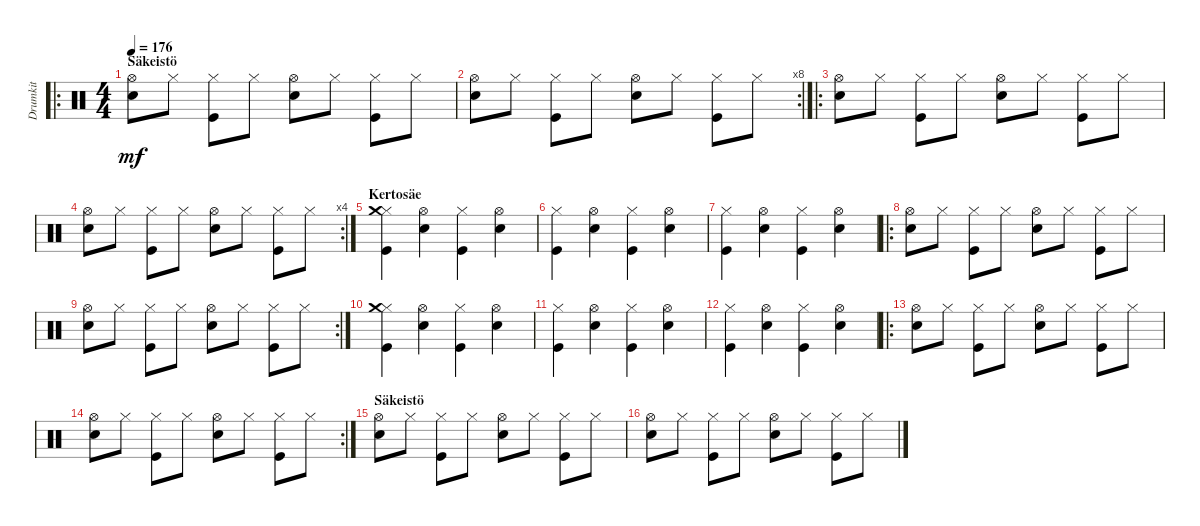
\track ("Drumkit" "Drumkit") {instrument percussion}
\staff {score}
\articulation defaults
\ro
\ts (4 4)
\section ("" "Säkeistö")
\tempo 176
\clef neutral
\ks c
("Hi-Hat (open)" "Snare (hit) 2").8{dy mf} "Hi-Hat (closed)".8 ("Hi-Hat (closed)" "Kick (hit)").8 "Hi-Hat (closed)".8 ("Hi-Hat (open)" "Snare (hit) 2").8 "Hi-Hat (closed)".8 ("Hi-Hat (closed)" "Kick (hit)").8 "Hi-Hat (closed)".8 |
\rc 8
("Hi-Hat (open)" "Snare (hit) 2").8 "Hi-Hat (closed)".8 ("Hi-Hat (closed)" "Kick (hit)").8 "Hi-Hat (closed)".8 ("Hi-Hat (open)" "Snare (hit) 2").8 "Hi-Hat (closed)".8 ("Hi-Hat (closed)" "Kick (hit)").8 "Hi-Hat (closed)".8 |
\ro
("Hi-Hat (open)" "Snare (hit) 2").8 "Hi-Hat (closed)".8 ("Hi-Hat (closed)" "Kick (hit)").8 "Hi-Hat (closed)".8 ("Hi-Hat (open)" "Snare (hit) 2").8 "Hi-Hat (closed)".8 ("Hi-Hat (closed)" "Kick (hit)").8 "Hi-Hat (closed)".8 |
\rc 4
("Hi-Hat (open)" "Snare (hit) 2").8 "Hi-Hat (closed)".8 ("Hi-Hat (closed)" "Kick (hit)").8 "Hi-Hat (closed)".8 ("Hi-Hat (open)" "Snare (hit) 2").8 "Hi-Hat (closed)".8 ("Hi-Hat (closed)" "Kick (hit)").8 "Hi-Hat (closed)".8 |
\section ("" "Kertosäe")
("Hi-Hat (closed)" "Kick (hit)" "Crash medium (hit)").4 ("Hi-Hat (open)" "Snare (hit) 2").4 ("Hi-Hat (closed)" "Kick (hit)").4 ("Hi-Hat (open)" "Snare (hit) 2").4 |
("Hi-Hat (closed)" "Kick (hit)").4 ("Hi-Hat (open)" "Snare (hit) 2").4 ("Hi-Hat (closed)" "Kick (hit)").4 ("Hi-Hat (open)" "Snare (hit) 2").4 |
("Hi-Hat (closed)" "Kick (hit)").4 ("Hi-Hat (open)" "Snare (hit) 2").4 ("Hi-Hat (closed)" "Kick (hit)").4 ("Hi-Hat (open)" "Snare (hit) 2").4 |
\ro
("Hi-Hat (open)" "Snare (hit) 2").8 "Hi-Hat (closed)".8 ("Hi-Hat (closed)" "Kick (hit)").8 "Hi-Hat (closed)".8 ("Hi-Hat (open)" "Snare (hit) 2").8 "Hi-Hat (closed)".8 ("Hi-Hat (closed)" "Kick (hit)").8 "Hi-Hat (closed)".8 |
\rc 2
("Hi-Hat (open)" "Snare (hit) 2").8 "Hi-Hat (closed)".8 ("Hi-Hat (closed)" "Kick (hit)").8 "Hi-Hat (closed)".8 ("Hi-Hat (open)" "Snare (hit) 2").8 "Hi-Hat (closed)".8 ("Hi-Hat (closed)" "Kick (hit)").8 "Hi-Hat (closed)".8 |
("Hi-Hat (closed)" "Kick (hit)" "Crash medium (hit)").4 ("Hi-Hat (open)" "Snare (hit) 2").4 ("Hi-Hat (closed)" "Kick (hit)").4 ("Hi-Hat (open)" "Snare (hit) 2").4 |
("Hi-Hat (closed)" "Kick (hit)").4 ("Hi-Hat (open)" "Snare (hit) 2").4 ("Hi-Hat (closed)" "Kick (hit)").4 ("Hi-Hat (open)" "Snare (hit) 2").4 |
("Hi-Hat (closed)" "Kick (hit)").4 ("Hi-Hat (open)" "Snare (hit) 2").4 ("Hi-Hat (closed)" "Kick (hit)").4 ("Hi-Hat (open)" "Snare (hit) 2").4 |
\ro
("Hi-Hat (open)" "Snare (hit) 2").8 "Hi-Hat (closed)".8 ("Hi-Hat (closed)" "Kick (hit)").8 "Hi-Hat (closed)".8 ("Hi-Hat (open)" "Snare (hit) 2").8 "Hi-Hat (closed)".8 ("Hi-Hat (closed)" "Kick (hit)").8 "Hi-Hat (closed)".8 |
\rc 2
("Hi-Hat (open)" "Snare (hit) 2").8 "Hi-Hat (closed)".8 ("Hi-Hat (closed)" "Kick (hit)").8 "Hi-Hat (closed)".8 ("Hi-Hat (open)" "Snare (hit) 2").8 "Hi-Hat (closed)".8 ("Hi-Hat (closed)" "Kick (hit)").8 "Hi-Hat (closed)".8 |
\section ("" "Säkeistö")
("Hi-Hat (open)" "Snare (hit) 2").8 "Hi-Hat (closed)".8 ("Hi-Hat (closed)" "Kick (hit)").8 "Hi-Hat (closed)".8 ("Hi-Hat (open)" "Snare (hit) 2").8 "Hi-Hat (closed)".8 ("Hi-Hat (closed)" "Kick (hit)").8 "Hi-Hat (closed)".8 |
("Hi-Hat (open)" "Snare (hit) 2").8 "Hi-Hat (closed)".8 ("Hi-Hat (closed)" "Kick (hit)").8 "Hi-Hat (closed)".8 ("Hi-Hat (open)" "Snare (hit) 2").8 "Hi-Hat (closed)".8 ("Hi-Hat (closed)" "Kick (hit)").8 "Hi-Hat (closed)".8
